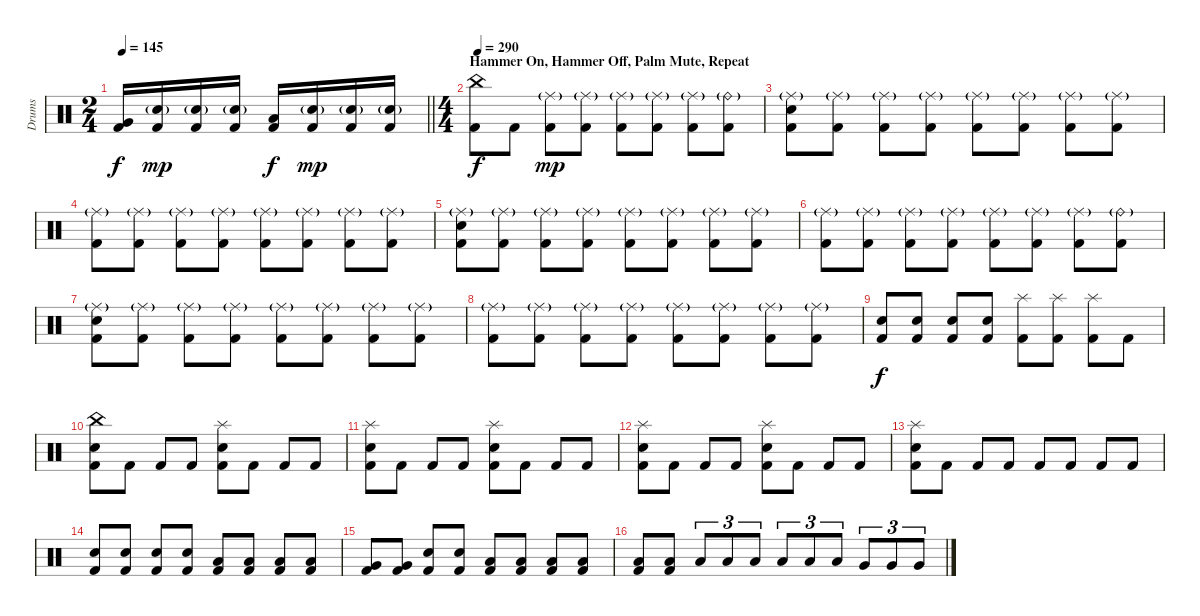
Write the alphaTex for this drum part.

\track ("Drums" "Drums") {instrument percussion}
\staff {score}
\articulation defaults
\ts (2 4)
\tempo 145
\clef neutral
\barLineRight lightlight
\ks c
("Very Low Tom (hit)" "Kick (hit) 2").16{dy f} ("Snare (hit) 2"{g} "Kick (hit) 2").16{dy mp} ("Snare (hit) 2"{g} "Kick (hit) 2").16 ("Snare (hit) 2"{g} "Kick (hit) 2").16 ("Low Tom (hit)" "Kick (hit) 2").16{dy f} ("Snare (hit) 2"{g} "Kick (hit) 2").16{dy mp} ("Snare (hit) 2"{g} "Kick (hit) 2").16 ("Snare (hit) 2"{g} "Kick (hit) 2").16 |
\ts (4 4)
\section ("" "Hammer On, Hammer Off, Palm Mute, Repeat")
\tempo 290
("China (hit)" "Kick (hit) 2").8{dy f} "Kick (hit) 2".8 ("Ride (middle)"{g} "Kick (hit) 2").8{dy mp} ("Ride (middle)"{g} "Kick (hit) 2").8 ("Ride (middle)"{g} "Kick (hit) 2").8 ("Ride (middle)"{g} "Kick (hit) 2").8 ("Ride (middle)"{g} "Kick (hit) 2").8 ("Ride (bell)"{g} "Kick (hit) 2").8 |
("Ride (middle)"{g} "Snare (hit) 2" "Kick (hit) 2").8 ("Ride (middle)"{g} "Kick (hit) 2").8 ("Ride (middle)"{g} "Kick (hit) 2").8 ("Ride (middle)"{g} "Kick (hit) 2").8 ("Ride (middle)"{g} "Kick (hit) 2").8 ("Ride (middle)"{g} "Kick (hit) 2").8 ("Ride (middle)"{g} "Kick (hit) 2").8 ("Ride (middle)"{g} "Kick (hit) 2").8 |
("Ride (middle)"{g} "Kick (hit) 2").8 ("Ride (middle)"{g} "Kick (hit) 2").8 ("Ride (middle)"{g} "Kick (hit) 2").8 ("Ride (middle)"{g} "Kick (hit) 2").8 ("Ride (middle)"{g} "Kick (hit) 2").8 ("Ride (middle)"{g} "Kick (hit) 2").8 ("Ride (middle)"{g} "Kick (hit) 2").8 ("Ride (middle)"{g} "Kick (hit) 2").8 |
("Ride (middle)"{g} "Snare (hit) 2" "Kick (hit) 2").8 ("Ride (middle)"{g} "Kick (hit) 2").8 ("Ride (middle)"{g} "Kick (hit) 2").8 ("Ride (middle)"{g} "Kick (hit) 2").8 ("Ride (middle)"{g} "Kick (hit) 2").8 ("Ride (middle)"{g} "Kick (hit) 2").8 ("Ride (middle)"{g} "Kick (hit) 2").8 ("Ride (middle)"{g} "Kick (hit) 2").8 |
("Ride (middle)"{g} "Kick (hit) 2").8 ("Ride (middle)"{g} "Kick (hit) 2").8 ("Ride (middle)"{g} "Kick (hit) 2").8 ("Ride (middle)"{g} "Kick (hit) 2").8 ("Ride (middle)"{g} "Kick (hit) 2").8 ("Ride (middle)"{g} "Kick (hit) 2").8 ("Ride (middle)"{g} "Kick (hit) 2").8 ("Ride (bell)"{g} "Kick (hit) 2").8 |
("Ride (middle)"{g} "Snare (hit) 2" "Kick (hit) 2").8 ("Ride (middle)"{g} "Kick (hit) 2").8 ("Ride (middle)"{g} "Kick (hit) 2").8 ("Ride (middle)"{g} "Kick (hit) 2").8 ("Ride (middle)"{g} "Kick (hit) 2").8 ("Ride (middle)"{g} "Kick (hit) 2").8 ("Ride (middle)"{g} "Kick (hit) 2").8 ("Ride (middle)"{g} "Kick (hit) 2").8 |
("Ride (middle)"{g} "Kick (hit) 2").8 ("Ride (middle)"{g} "Kick (hit) 2").8 ("Ride (middle)"{g} "Kick (hit) 2").8 ("Ride (middle)"{g} "Kick (hit) 2").8 ("Ride (middle)"{g} "Kick (hit) 2").8 ("Ride (middle)"{g} "Kick (hit) 2").8 ("Ride (middle)"{g} "Kick (hit) 2").8 ("Ride (middle)"{g} "Kick (hit) 2").8 |
("Snare (hit) 2" "Kick (hit) 2").8{dy f} ("Snare (hit) 2" "Kick (hit) 2").8 ("Snare (hit) 2" "Kick (hit) 2").8 ("Snare (hit) 2" "Kick (hit) 2").8 ("Splash (hit)" "Kick (hit) 2").8 ("Splash (hit)" "Kick (hit) 2").8 ("Splash (hit)" "Kick (hit) 2").8 "Kick (hit) 2".8 |
("China (hit)" "Snare (hit) 2" "Kick (hit) 2").8 "Kick (hit) 2".8 "Kick (hit) 2".8 "Kick (hit) 2".8 ("Splash (hit)" "Snare (hit) 2" "Kick (hit) 2").8 "Kick (hit) 2".8 "Kick (hit) 2".8 "Kick (hit) 2".8 |
("Splash (hit)" "Snare (hit) 2" "Kick (hit) 2").8 "Kick (hit) 2".8 "Kick (hit) 2".8 "Kick (hit) 2".8 ("Splash (hit)" "Snare (hit) 2" "Kick (hit) 2").8 "Kick (hit) 2".8 "Kick (hit) 2".8 "Kick (hit) 2".8 |
("Splash (hit)" "Snare (hit) 2" "Kick (hit) 2").8 "Kick (hit) 2".8 "Kick (hit) 2".8 "Kick (hit) 2".8 ("Splash (hit)" "Snare (hit) 2" "Kick (hit) 2").8 "Kick (hit) 2".8 "Kick (hit) 2".8 "Kick (hit) 2".8 |
("Splash (hit)" "Snare (hit) 2" "Kick (hit) 2").8 "Kick (hit) 2".8 "Kick (hit) 2".8 "Kick (hit) 2".8 "Kick (hit) 2".8 "Kick (hit) 2".8 "Kick (hit) 2".8 "Kick (hit) 2".8 |
("Snare (hit) 2" "Kick (hit) 2").8 ("Snare (hit) 2" "Kick (hit) 2").8 ("Snare (hit) 2" "Kick (hit) 2").8 ("Snare (hit) 2" "Kick (hit) 2").8 ("Low Tom (hit)" "Kick (hit) 2").8 ("Low Tom (hit)" "Kick (hit) 2").8 ("Low Tom (hit)" "Kick (hit) 2").8 ("Low Tom (hit)" "Kick (hit) 2").8 |
("Very Low Tom (hit)" "Kick (hit) 2").8 ("Very Low Tom (hit)" "Kick (hit) 2").8 ("Snare (hit) 2" "Kick (hit) 2").8 ("Snare (hit) 2" "Kick (hit) 2").8 ("Low Floor Tom (hit)" "Kick (hit) 2").8 ("Low Floor Tom (hit)" "Kick (hit) 2").8 ("Low Floor Tom (hit)" "Kick (hit) 2").8 ("Low Floor Tom (hit)" "Kick (hit) 2").8 |
("Low Floor Tom (hit)" "Kick (hit) 2").8 ("Low Floor Tom (hit)" "Kick (hit) 2").8 "Low Tom (hit)".8{tu (3 2)} "Low Tom (hit)".8{tu (3 2)} "Low Tom (hit)".8{tu (3 2)} "Low Tom (hit)".8{tu (3 2)} "Low Tom (hit)".8{tu (3 2)} "Low Tom (hit)".8{tu (3 2)} "Very Low Tom (hit)".8{tu (3 2)} "Very Low Tom (hit)".8{tu (3 2)} "Very Low Tom (hit)".8{tu (3 2)}
